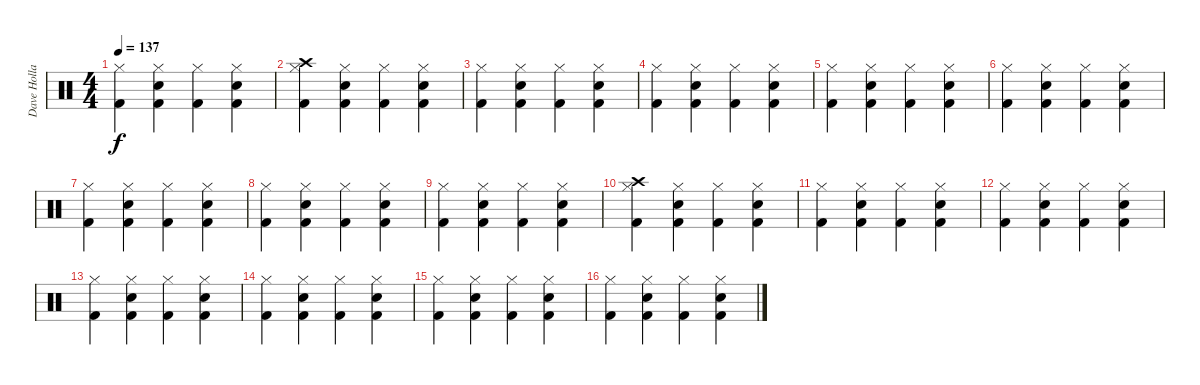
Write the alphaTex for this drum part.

\track ("Dave Holland" "Dave Holla") {instrument percussion}
\staff {score}
\articulation defaults
\ts (4 4)
\tempo 137
\clef neutral
\ks c
("Hi-Hat (closed)" "Kick (hit) 2").4{dy f} ("Hi-Hat (closed)" "Snare (hit) 2" "Kick (hit) 2").4 ("Hi-Hat (closed)" "Kick (hit) 2").4 ("Hi-Hat (closed)" "Snare (hit) 2" "Kick (hit) 2").4 |
("Crash high (hit)" "Hi-Hat (closed)" "Kick (hit) 2").4 ("Hi-Hat (closed)" "Snare (hit) 2" "Kick (hit) 2").4 ("Hi-Hat (closed)" "Kick (hit) 2").4 ("Hi-Hat (closed)" "Snare (hit) 2" "Kick (hit) 2").4 |
("Hi-Hat (closed)" "Kick (hit) 2").4 ("Hi-Hat (closed)" "Snare (hit) 2" "Kick (hit) 2").4 ("Hi-Hat (closed)" "Kick (hit) 2").4 ("Hi-Hat (closed)" "Snare (hit) 2" "Kick (hit) 2").4 |
("Hi-Hat (closed)" "Kick (hit) 2").4 ("Hi-Hat (closed)" "Snare (hit) 2" "Kick (hit) 2").4 ("Hi-Hat (closed)" "Kick (hit) 2").4 ("Hi-Hat (closed)" "Snare (hit) 2" "Kick (hit) 2").4 |
("Hi-Hat (closed)" "Kick (hit) 2").4 ("Hi-Hat (closed)" "Snare (hit) 2" "Kick (hit) 2").4 ("Hi-Hat (closed)" "Kick (hit) 2").4 ("Hi-Hat (closed)" "Snare (hit) 2" "Kick (hit) 2").4 |
("Hi-Hat (closed)" "Kick (hit) 2").4 ("Hi-Hat (closed)" "Snare (hit) 2" "Kick (hit) 2").4 ("Hi-Hat (closed)" "Kick (hit) 2").4 ("Hi-Hat (closed)" "Snare (hit) 2" "Kick (hit) 2").4 |
("Hi-Hat (closed)" "Kick (hit) 2").4 ("Hi-Hat (closed)" "Snare (hit) 2" "Kick (hit) 2").4 ("Hi-Hat (closed)" "Kick (hit) 2").4 ("Hi-Hat (closed)" "Snare (hit) 2" "Kick (hit) 2").4 |
("Hi-Hat (closed)" "Kick (hit) 2").4 ("Hi-Hat (closed)" "Snare (hit) 2" "Kick (hit) 2").4 ("Hi-Hat (closed)" "Kick (hit) 2").4 ("Hi-Hat (closed)" "Snare (hit) 2" "Kick (hit) 2").4 |
("Hi-Hat (closed)" "Kick (hit) 2").4 ("Hi-Hat (closed)" "Snare (hit) 2" "Kick (hit) 2").4 ("Hi-Hat (closed)" "Kick (hit) 2").4 ("Hi-Hat (closed)" "Snare (hit) 2" "Kick (hit) 2").4 |
("Crash high (hit)" "Hi-Hat (closed)" "Kick (hit) 2").4 ("Hi-Hat (closed)" "Snare (hit) 2" "Kick (hit) 2").4 ("Hi-Hat (closed)" "Kick (hit) 2").4 ("Hi-Hat (closed)" "Snare (hit) 2" "Kick (hit) 2").4 |
("Hi-Hat (closed)" "Kick (hit) 2").4 ("Hi-Hat (closed)" "Snare (hit) 2" "Kick (hit) 2").4 ("Hi-Hat (closed)" "Kick (hit) 2").4 ("Hi-Hat (closed)" "Snare (hit) 2" "Kick (hit) 2").4 |
("Hi-Hat (closed)" "Kick (hit) 2").4 ("Hi-Hat (closed)" "Snare (hit) 2" "Kick (hit) 2").4 ("Hi-Hat (closed)" "Kick (hit) 2").4 ("Hi-Hat (closed)" "Snare (hit) 2" "Kick (hit) 2").4 |
("Hi-Hat (closed)" "Kick (hit) 2").4 ("Hi-Hat (closed)" "Snare (hit) 2" "Kick (hit) 2").4 ("Hi-Hat (closed)" "Kick (hit) 2").4 ("Hi-Hat (closed)" "Snare (hit) 2" "Kick (hit) 2").4 |
("Hi-Hat (closed)" "Kick (hit) 2").4 ("Hi-Hat (closed)" "Snare (hit) 2" "Kick (hit) 2").4 ("Hi-Hat (closed)" "Kick (hit) 2").4 ("Hi-Hat (closed)" "Snare (hit) 2" "Kick (hit) 2").4 |
("Hi-Hat (closed)" "Kick (hit) 2").4 ("Hi-Hat (closed)" "Snare (hit) 2" "Kick (hit) 2").4 ("Hi-Hat (closed)" "Kick (hit) 2").4 ("Hi-Hat (closed)" "Snare (hit) 2" "Kick (hit) 2").4 |
("Hi-Hat (closed)" "Kick (hit) 2").4 ("Hi-Hat (closed)" "Snare (hit) 2" "Kick (hit) 2").4 ("Hi-Hat (closed)" "Kick (hit) 2").4 ("Hi-Hat (closed)" "Snare (hit) 2" "Kick (hit) 2").4
